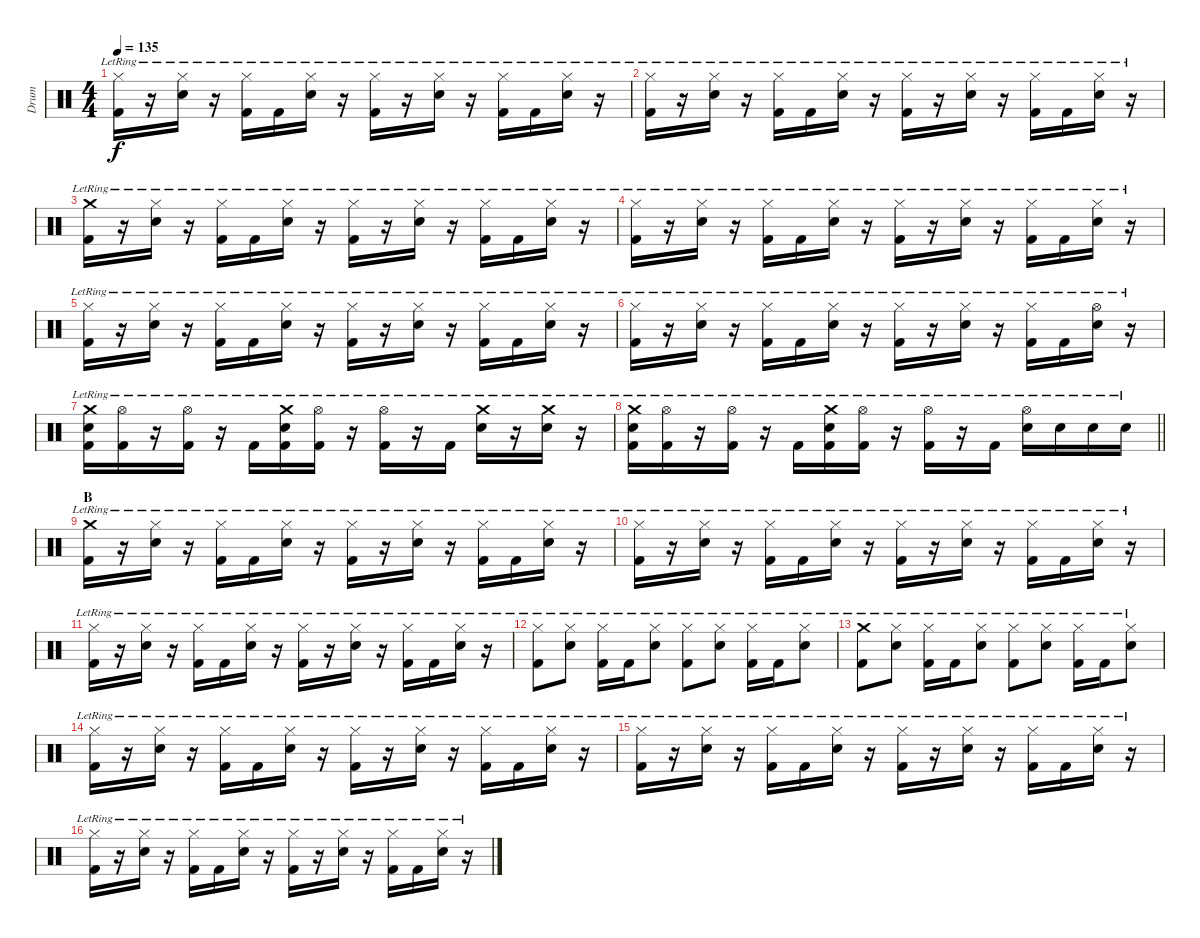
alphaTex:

\track ("Drum" "Drum") {instrument percussion}
\staff {score}
\articulation defaults
\ts (4 4)
\tempo 135
\clef neutral
\ks c
("Hi-Hat (closed)"{lr} "Kick (hit) 2"{lr}).16{dy f} r.16 ("Hi-Hat (closed)"{lr} "Snare (hit) 2"{lr}).16 r.16 ("Hi-Hat (closed)"{lr} "Kick (hit) 2"{lr}).16 "Kick (hit) 2"{lr}.16 ("Hi-Hat (closed)"{lr} "Snare (hit) 2"{lr}).16 r.16 ("Hi-Hat (closed)"{lr} "Kick (hit) 2"{lr}).16 r.16 ("Hi-Hat (closed)"{lr} "Snare (hit) 2"{lr}).16 r.16 ("Hi-Hat (closed)"{lr} "Kick (hit) 2"{lr}).16 "Kick (hit) 2"{lr}.16 ("Hi-Hat (closed)"{lr} "Snare (hit) 2"{lr}).16 r.16 |
("Hi-Hat (closed)"{lr} "Kick (hit) 2"{lr}).16 r.16 ("Hi-Hat (closed)"{lr} "Snare (hit) 2"{lr}).16 r.16 ("Hi-Hat (closed)"{lr} "Kick (hit) 2"{lr}).16 "Kick (hit) 2"{lr}.16 ("Hi-Hat (closed)"{lr} "Snare (hit) 2"{lr}).16 r.16 ("Hi-Hat (closed)"{lr} "Kick (hit) 2"{lr}).16 r.16 ("Hi-Hat (closed)"{lr} "Snare (hit) 2"{lr}).16 r.16 ("Hi-Hat (closed)"{lr} "Kick (hit) 2"{lr}).16 "Kick (hit) 2"{lr}.16 ("Hi-Hat (closed)"{lr} "Snare (hit) 2"{lr}).16 r.16 |
("Crash medium (hit)"{lr} "Kick (hit) 2"{lr}).16 r.16 ("Hi-Hat (closed)"{lr} "Snare (hit) 2"{lr}).16 r.16 ("Hi-Hat (closed)"{lr} "Kick (hit) 2"{lr}).16 "Kick (hit) 2"{lr}.16 ("Hi-Hat (closed)"{lr} "Snare (hit) 2"{lr}).16 r.16 ("Hi-Hat (closed)"{lr} "Kick (hit) 2"{lr}).16 r.16 ("Hi-Hat (closed)"{lr} "Snare (hit) 2"{lr}).16 r.16 ("Hi-Hat (closed)"{lr} "Kick (hit) 2"{lr}).16 "Kick (hit) 2"{lr}.16 ("Hi-Hat (closed)"{lr} "Snare (hit) 2"{lr}).16 r.16 |
("Hi-Hat (closed)"{lr} "Kick (hit) 2"{lr}).16 r.16 ("Hi-Hat (closed)"{lr} "Snare (hit) 2"{lr}).16 r.16 ("Hi-Hat (closed)"{lr} "Kick (hit) 2"{lr}).16 "Kick (hit) 2"{lr}.16 ("Hi-Hat (closed)"{lr} "Snare (hit) 2"{lr}).16 r.16 ("Hi-Hat (closed)"{lr} "Kick (hit) 2"{lr}).16 r.16 ("Hi-Hat (closed)"{lr} "Snare (hit) 2"{lr}).16 r.16 ("Hi-Hat (closed)"{lr} "Kick (hit) 2"{lr}).16 "Kick (hit) 2"{lr}.16 ("Hi-Hat (closed)"{lr} "Snare (hit) 2"{lr}).16 r.16 |
("Hi-Hat (closed)"{lr} "Kick (hit) 2"{lr}).16 r.16 ("Hi-Hat (closed)"{lr} "Snare (hit) 2"{lr}).16 r.16 ("Hi-Hat (closed)"{lr} "Kick (hit) 2"{lr}).16 "Kick (hit) 2"{lr}.16 ("Hi-Hat (closed)"{lr} "Snare (hit) 2"{lr}).16 r.16 ("Hi-Hat (closed)"{lr} "Kick (hit) 2"{lr}).16 r.16 ("Hi-Hat (closed)"{lr} "Snare (hit) 2"{lr}).16 r.16 ("Hi-Hat (closed)"{lr} "Kick (hit) 2"{lr}).16 "Kick (hit) 2"{lr}.16 ("Hi-Hat (closed)"{lr} "Snare (hit) 2"{lr}).16 r.16 |
("Hi-Hat (closed)"{lr} "Kick (hit) 2"{lr}).16 r.16 ("Hi-Hat (closed)"{lr} "Snare (hit) 2"{lr}).16 r.16 ("Hi-Hat (closed)"{lr} "Kick (hit) 2"{lr}).16 "Kick (hit) 2"{lr}.16 ("Hi-Hat (closed)"{lr} "Snare (hit) 2"{lr}).16 r.16 ("Hi-Hat (closed)"{lr} "Kick (hit) 2"{lr}).16 r.16 ("Hi-Hat (closed)"{lr} "Snare (hit) 2"{lr}).16 r.16 ("Hi-Hat (closed)"{lr} "Kick (hit) 2"{lr}).16 "Kick (hit) 2"{lr}.16 ("Hi-Hat (open)"{lr} "Snare (hit) 2"{lr}).16 r.16 |
("Crash medium (hit)"{lr} "Snare (hit) 2"{lr} "Kick (hit) 2"{lr}).16 ("Hi-Hat (open)"{lr} "Kick (hit) 2"{lr}).16 r.16 ("Hi-Hat (open)"{lr} "Kick (hit) 2"{lr}).16 r.16 "Kick (hit) 2"{lr}.16 ("Crash medium (hit)"{lr} "Snare (hit) 2"{lr} "Kick (hit) 2"{lr}).16 ("Hi-Hat (open)"{lr} "Kick (hit) 2"{lr}).16 r.16 ("Hi-Hat (open)"{lr} "Kick (hit) 2"{lr}).16 r.16 "Kick (hit) 2"{lr}.16 ("Crash medium (hit)"{lr} "Snare (hit) 2"{lr}).16 r.16 ("Crash medium (hit)"{lr} "Snare (hit) 2"{lr}).16 r.16 |
\barLineRight lightlight
("Crash medium (hit)"{lr} "Snare (hit) 2"{lr} "Kick (hit) 2"{lr}).16 ("Hi-Hat (open)"{lr} "Kick (hit) 2"{lr}).16 r.16 ("Hi-Hat (open)"{lr} "Kick (hit) 2"{lr}).16 r.16 "Kick (hit) 2"{lr}.16 ("Crash medium (hit)"{lr} "Snare (hit) 2"{lr} "Kick (hit) 2"{lr}).16 ("Hi-Hat (open)"{lr} "Kick (hit) 2"{lr}).16 r.16 ("Hi-Hat (open)"{lr} "Kick (hit) 2"{lr}).16 r.16 "Kick (hit) 2"{lr}.16 ("Hi-Hat (open)"{lr} "Snare (hit) 2"{lr}).16 "Snare (hit) 2"{lr}.16 "Snare (hit) 2"{lr}.16 "Snare (hit) 2"{lr}.16 |
\section ("" "B")
("Crash medium (hit)"{lr} "Kick (hit) 2"{lr}).16 r.16 ("Hi-Hat (closed)"{lr} "Snare (hit) 2"{lr}).16 r.16 ("Hi-Hat (closed)"{lr} "Kick (hit) 2"{lr}).16 "Kick (hit) 2"{lr}.16 ("Hi-Hat (closed)"{lr} "Snare (hit) 2"{lr}).16 r.16 ("Hi-Hat (closed)"{lr} "Kick (hit) 2"{lr}).16 r.16 ("Hi-Hat (closed)"{lr} "Snare (hit) 2"{lr}).16 r.16 ("Hi-Hat (closed)"{lr} "Kick (hit) 2"{lr}).16 "Kick (hit) 2"{lr}.16 ("Hi-Hat (closed)"{lr} "Snare (hit) 2"{lr}).16 r.16 |
("Hi-Hat (closed)"{lr} "Kick (hit) 2"{lr}).16 r.16 ("Hi-Hat (closed)"{lr} "Snare (hit) 2"{lr}).16 r.16 ("Hi-Hat (closed)"{lr} "Kick (hit) 2"{lr}).16 "Kick (hit) 2"{lr}.16 ("Hi-Hat (closed)"{lr} "Snare (hit) 2"{lr}).16 r.16 ("Hi-Hat (closed)"{lr} "Kick (hit) 2"{lr}).16 r.16 ("Hi-Hat (closed)"{lr} "Snare (hit) 2"{lr}).16 r.16 ("Hi-Hat (closed)"{lr} "Kick (hit) 2"{lr}).16 "Kick (hit) 2"{lr}.16 ("Hi-Hat (closed)"{lr} "Snare (hit) 2"{lr}).16 r.16 |
("Hi-Hat (closed)"{lr} "Kick (hit) 2"{lr}).16 r.16 ("Hi-Hat (closed)"{lr} "Snare (hit) 2"{lr}).16 r.16 ("Hi-Hat (closed)"{lr} "Kick (hit) 2"{lr}).16 "Kick (hit) 2"{lr}.16 ("Hi-Hat (closed)"{lr} "Snare (hit) 2"{lr}).16 r.16 ("Hi-Hat (closed)"{lr} "Kick (hit) 2"{lr}).16 r.16 ("Hi-Hat (closed)"{lr} "Snare (hit) 2"{lr}).16 r.16 ("Hi-Hat (closed)"{lr} "Kick (hit) 2"{lr}).16 "Kick (hit) 2"{lr}.16 ("Hi-Hat (closed)"{lr} "Snare (hit) 2"{lr}).16 r.16 |
("Hi-Hat (closed)"{lr} "Kick (hit) 2"{lr}).8 ("Hi-Hat (closed)"{lr} "Snare (hit) 2"{lr}).8 ("Hi-Hat (closed)"{lr} "Kick (hit) 2"{lr}).16 "Kick (hit) 2"{lr}.16 ("Hi-Hat (closed)"{lr} "Snare (hit) 2"{lr}).8 ("Hi-Hat (closed)"{lr} "Kick (hit) 2"{lr}).8 ("Hi-Hat (closed)"{lr} "Snare (hit) 2"{lr}).8 ("Hi-Hat (closed)"{lr} "Kick (hit) 2"{lr}).16 "Kick (hit) 2"{lr}.16 ("Hi-Hat (closed)"{lr} "Snare (hit) 2"{lr}).8 |
("Crash medium (hit)"{lr} "Kick (hit) 2"{lr}).8 ("Hi-Hat (closed)"{lr} "Snare (hit) 2"{lr}).8 ("Hi-Hat (closed)"{lr} "Kick (hit) 2"{lr}).16 "Kick (hit) 2"{lr}.16 ("Hi-Hat (closed)"{lr} "Snare (hit) 2"{lr}).8 ("Hi-Hat (closed)"{lr} "Kick (hit) 2"{lr}).8 ("Hi-Hat (closed)"{lr} "Snare (hit) 2"{lr}).8 ("Hi-Hat (closed)"{lr} "Kick (hit) 2"{lr}).16 "Kick (hit) 2"{lr}.16 ("Hi-Hat (closed)"{lr} "Snare (hit) 2"{lr}).8 |
("Hi-Hat (closed)"{lr} "Kick (hit) 2"{lr}).16 r.16 ("Hi-Hat (closed)"{lr} "Snare (hit) 2"{lr}).16 r.16 ("Hi-Hat (closed)"{lr} "Kick (hit) 2"{lr}).16 "Kick (hit) 2"{lr}.16 ("Hi-Hat (closed)"{lr} "Snare (hit) 2"{lr}).16 r.16 ("Hi-Hat (closed)"{lr} "Kick (hit) 2"{lr}).16 r.16 ("Hi-Hat (closed)"{lr} "Snare (hit) 2"{lr}).16 r.16 ("Hi-Hat (closed)"{lr} "Kick (hit) 2"{lr}).16 "Kick (hit) 2"{lr}.16 ("Hi-Hat (closed)"{lr} "Snare (hit) 2"{lr}).16 r.16 |
("Hi-Hat (closed)"{lr} "Kick (hit) 2"{lr}).16 r.16 ("Hi-Hat (closed)"{lr} "Snare (hit) 2"{lr}).16 r.16 ("Hi-Hat (closed)"{lr} "Kick (hit) 2"{lr}).16 "Kick (hit) 2"{lr}.16 ("Hi-Hat (closed)"{lr} "Snare (hit) 2"{lr}).16 r.16 ("Hi-Hat (closed)"{lr} "Kick (hit) 2"{lr}).16 r.16 ("Hi-Hat (closed)"{lr} "Snare (hit) 2"{lr}).16 r.16 ("Hi-Hat (closed)"{lr} "Kick (hit) 2"{lr}).16 "Kick (hit) 2"{lr}.16 ("Hi-Hat (closed)"{lr} "Snare (hit) 2"{lr}).16 r.16 |
("Hi-Hat (closed)"{lr} "Kick (hit) 2"{lr}).16 r.16 ("Hi-Hat (closed)"{lr} "Snare (hit) 2"{lr}).16 r.16 ("Hi-Hat (closed)"{lr} "Kick (hit) 2"{lr}).16 "Kick (hit) 2"{lr}.16 ("Hi-Hat (closed)"{lr} "Snare (hit) 2"{lr}).16 r.16 ("Hi-Hat (closed)"{lr} "Kick (hit) 2"{lr}).16 r.16 ("Hi-Hat (closed)"{lr} "Snare (hit) 2"{lr}).16 r.16 ("Hi-Hat (closed)"{lr} "Kick (hit) 2"{lr}).16 "Kick (hit) 2"{lr}.16 ("Hi-Hat (closed)"{lr} "Snare (hit) 2"{lr}).16 r.16
